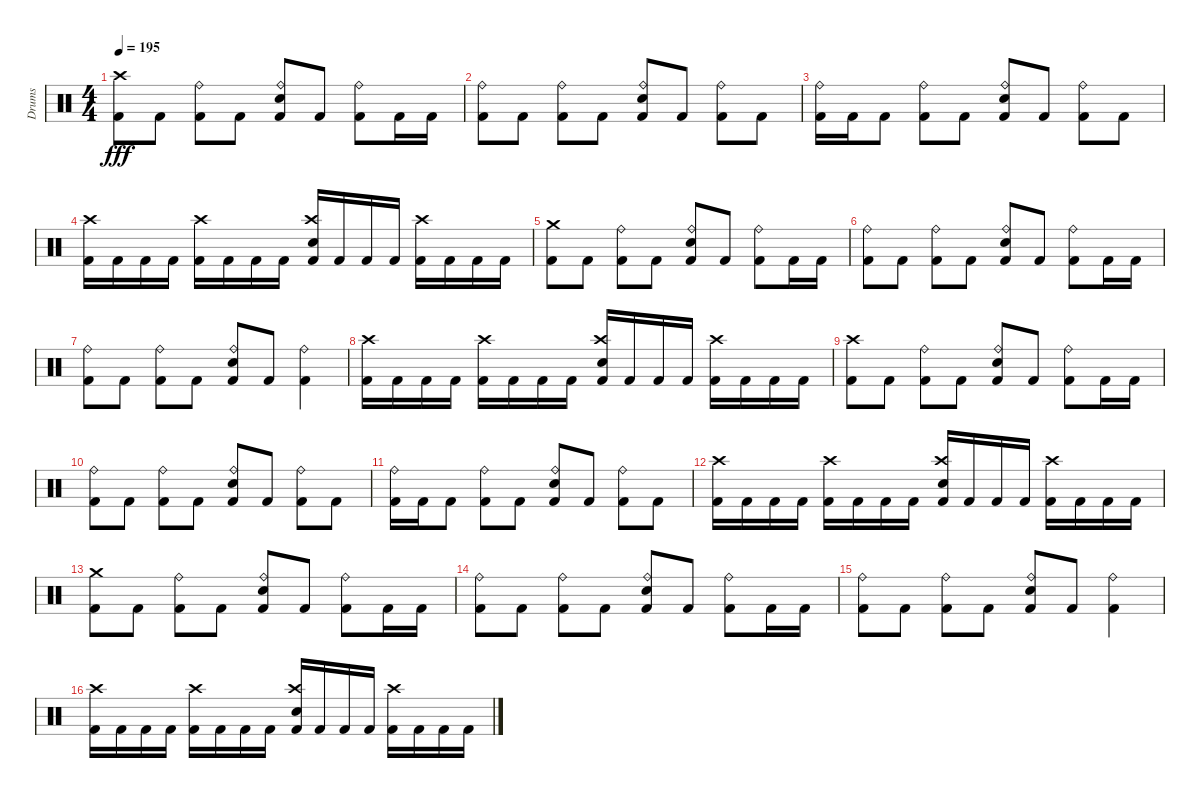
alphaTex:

\track ("Drums" "Drums") {instrument percussion}
\staff {score}
\articulation defaults
\ts (4 4)
\tempo 195
\clef neutral
\ks c
("Kick (hit) 2" "Crash high (hit)").8{dy fff} "Kick (hit) 2".8 ("Kick (hit) 2" "Ride (bell)").8 "Kick (hit) 2".8 ("Metronome (bell)" "Kick (hit) 2" "Ride (bell)").8 "Kick (hit) 2".8 ("Kick (hit) 2" "Ride (bell)").8 "Kick (hit) 2".16 "Kick (hit) 2".16 |
("Kick (hit) 2" "Ride (bell)").8 "Kick (hit) 2".8 ("Kick (hit) 2" "Ride (bell)").8 "Kick (hit) 2".8 ("Metronome (bell)" "Kick (hit) 2" "Ride (bell)").8 "Kick (hit) 2".8 ("Kick (hit) 2" "Ride (bell)").8 "Kick (hit) 2".8 |
("Kick (hit) 2" "Ride (bell)").16 "Kick (hit) 2".16 "Kick (hit) 2".8 ("Kick (hit) 2" "Ride (bell)").8 "Kick (hit) 2".8 ("Metronome (bell)" "Kick (hit) 2" "Ride (bell)").8 "Kick (hit) 2".8 ("Kick (hit) 2" "Ride (bell)").8 "Kick (hit) 2".8 |
("Kick (hit) 2" "Crash high (hit)").16 "Kick (hit) 2".16 "Kick (hit) 2".16 "Kick (hit) 2".16 ("Kick (hit) 2" "Crash high (hit)").16 "Kick (hit) 2".16 "Kick (hit) 2".16 "Kick (hit) 2".16 ("Metronome (bell)" "Kick (hit) 2" "Crash high (hit)").16 "Kick (hit) 2".16 "Kick (hit) 2".16 "Kick (hit) 2".16 ("Kick (hit) 2" "Crash high (hit)").16 "Kick (hit) 2".16 "Kick (hit) 2".16 "Kick (hit) 2".16 |
("Kick (hit) 2" "Crash medium (hit)").8 "Kick (hit) 2".8 ("Kick (hit) 2" "Ride (bell)").8 "Kick (hit) 2".8 ("Metronome (bell)" "Kick (hit) 2" "Ride (bell)").8 "Kick (hit) 2".8 ("Kick (hit) 2" "Ride (bell)").8 "Kick (hit) 2".16 "Kick (hit) 2".16 |
("Kick (hit) 2" "Ride (bell)").8 "Kick (hit) 2".8 ("Kick (hit) 2" "Ride (bell)").8 "Kick (hit) 2".8 ("Metronome (bell)" "Kick (hit) 2" "Ride (bell)").8 "Kick (hit) 2".8 ("Kick (hit) 2" "Ride (bell)").8 "Kick (hit) 2".16 "Kick (hit) 2".16 |
("Kick (hit) 2" "Ride (bell)").8 "Kick (hit) 2".8 ("Kick (hit) 2" "Ride (bell)").8 "Kick (hit) 2".8 ("Metronome (bell)" "Kick (hit) 2" "Ride (bell)").8 "Kick (hit) 2".8 ("Kick (hit) 2" "Ride (bell)").4 |
("Kick (hit) 2" "Crash high (hit)").16 "Kick (hit) 2".16 "Kick (hit) 2".16 "Kick (hit) 2".16 ("Kick (hit) 2" "Crash high (hit)").16 "Kick (hit) 2".16 "Kick (hit) 2".16 "Kick (hit) 2".16 ("Metronome (bell)" "Kick (hit) 2" "Crash high (hit)").16 "Kick (hit) 2".16 "Kick (hit) 2".16 "Kick (hit) 2".16 ("Kick (hit) 2" "Crash high (hit)").16 "Kick (hit) 2".16 "Kick (hit) 2".16 "Kick (hit) 2".16 |
("Kick (hit) 2" "Crash high (hit)").8 "Kick (hit) 2".8 ("Kick (hit) 2" "Ride (bell)").8 "Kick (hit) 2".8 ("Metronome (bell)" "Kick (hit) 2" "Ride (bell)").8 "Kick (hit) 2".8 ("Kick (hit) 2" "Ride (bell)").8 "Kick (hit) 2".16 "Kick (hit) 2".16 |
("Kick (hit) 2" "Ride (bell)").8 "Kick (hit) 2".8 ("Kick (hit) 2" "Ride (bell)").8 "Kick (hit) 2".8 ("Metronome (bell)" "Kick (hit) 2" "Ride (bell)").8 "Kick (hit) 2".8 ("Kick (hit) 2" "Ride (bell)").8 "Kick (hit) 2".8 |
("Kick (hit) 2" "Ride (bell)").16 "Kick (hit) 2".16 "Kick (hit) 2".8 ("Kick (hit) 2" "Ride (bell)").8 "Kick (hit) 2".8 ("Metronome (bell)" "Kick (hit) 2" "Ride (bell)").8 "Kick (hit) 2".8 ("Kick (hit) 2" "Ride (bell)").8 "Kick (hit) 2".8 |
("Kick (hit) 2" "Crash high (hit)").16 "Kick (hit) 2".16 "Kick (hit) 2".16 "Kick (hit) 2".16 ("Kick (hit) 2" "Crash high (hit)").16 "Kick (hit) 2".16 "Kick (hit) 2".16 "Kick (hit) 2".16 ("Metronome (bell)" "Kick (hit) 2" "Crash high (hit)").16 "Kick (hit) 2".16 "Kick (hit) 2".16 "Kick (hit) 2".16 ("Kick (hit) 2" "Crash high (hit)").16 "Kick (hit) 2".16 "Kick (hit) 2".16 "Kick (hit) 2".16 |
("Kick (hit) 2" "Crash medium (hit)").8 "Kick (hit) 2".8 ("Kick (hit) 2" "Ride (bell)").8 "Kick (hit) 2".8 ("Metronome (bell)" "Kick (hit) 2" "Ride (bell)").8 "Kick (hit) 2".8 ("Kick (hit) 2" "Ride (bell)").8 "Kick (hit) 2".16 "Kick (hit) 2".16 |
("Kick (hit) 2" "Ride (bell)").8 "Kick (hit) 2".8 ("Kick (hit) 2" "Ride (bell)").8 "Kick (hit) 2".8 ("Metronome (bell)" "Kick (hit) 2" "Ride (bell)").8 "Kick (hit) 2".8 ("Kick (hit) 2" "Ride (bell)").8 "Kick (hit) 2".16 "Kick (hit) 2".16 |
("Kick (hit) 2" "Ride (bell)").8 "Kick (hit) 2".8 ("Kick (hit) 2" "Ride (bell)").8 "Kick (hit) 2".8 ("Metronome (bell)" "Kick (hit) 2" "Ride (bell)").8 "Kick (hit) 2".8 ("Kick (hit) 2" "Ride (bell)").4 |
("Kick (hit) 2" "Crash high (hit)").16 "Kick (hit) 2".16 "Kick (hit) 2".16 "Kick (hit) 2".16 ("Kick (hit) 2" "Crash high (hit)").16 "Kick (hit) 2".16 "Kick (hit) 2".16 "Kick (hit) 2".16 ("Metronome (bell)" "Kick (hit) 2" "Crash high (hit)").16 "Kick (hit) 2".16 "Kick (hit) 2".16 "Kick (hit) 2".16 ("Kick (hit) 2" "Crash high (hit)").16 "Kick (hit) 2".16 "Kick (hit) 2".16 "Kick (hit) 2".16
